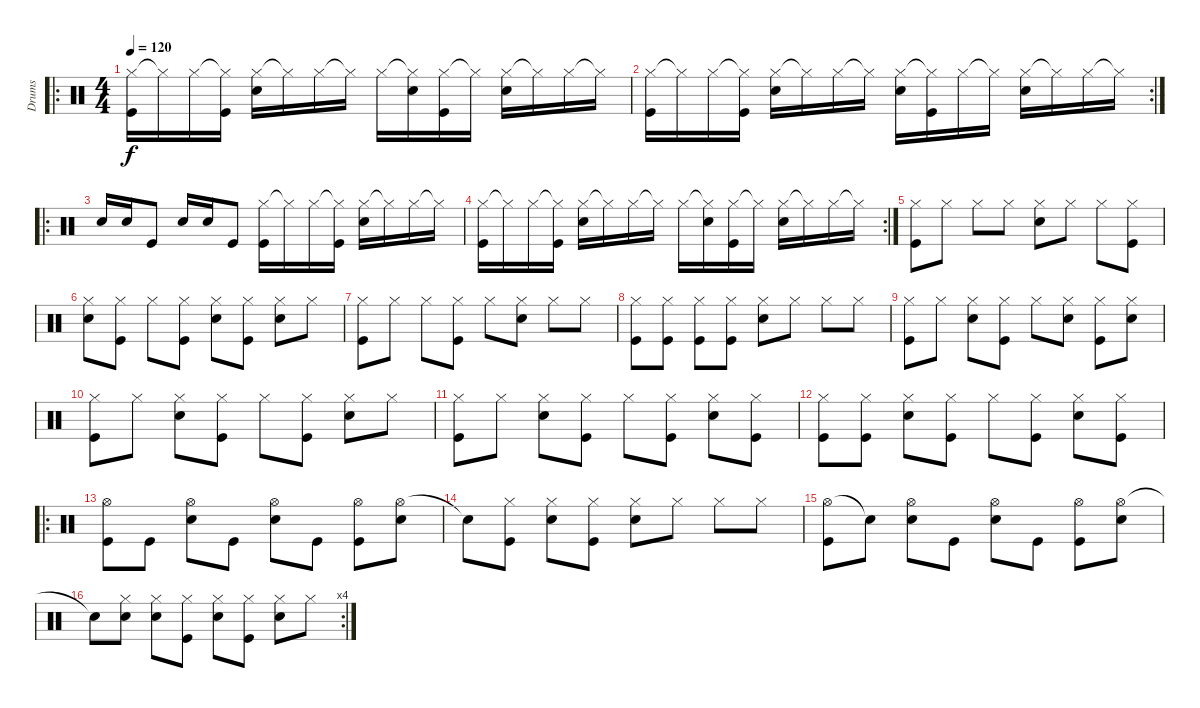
\track ("Drums" "Drums") {instrument percussion}
\staff {score}
\articulation defaults
\ro
\ts (4 4)
\tempo 120
\clef neutral
\ks c
("Hi-Hat (closed)" "Kick (hit)").16{dy f} "Hi-Hat (closed)"{t}.16 "Hi-Hat (closed)".16 ("Hi-Hat (closed)"{t} "Kick (hit)").16 ("Hi-Hat (closed)" "Snare (hit) 2").16 "Hi-Hat (closed)"{t}.16 "Hi-Hat (closed)".16 "Hi-Hat (closed)"{t}.16 "Hi-Hat (closed)".16 ("Hi-Hat (closed)"{t} "Snare (hit) 2").16 ("Hi-Hat (closed)" "Kick (hit)").16 "Hi-Hat (closed)"{t}.16 ("Hi-Hat (closed)" "Snare (hit) 2").16 "Hi-Hat (closed)"{t}.16 "Hi-Hat (closed)".16 "Hi-Hat (closed)"{t}.16 |
\rc 2
("Hi-Hat (closed)" "Kick (hit)").16 "Hi-Hat (closed)"{t}.16 "Hi-Hat (closed)".16 ("Hi-Hat (closed)"{t} "Kick (hit)").16 ("Hi-Hat (closed)" "Snare (hit) 2").16 "Hi-Hat (closed)"{t}.16 "Hi-Hat (closed)".16 "Hi-Hat (closed)"{t}.16 ("Hi-Hat (closed)" "Snare (hit) 2").16 ("Hi-Hat (closed)"{t} "Kick (hit)").16 "Hi-Hat (closed)".16 "Hi-Hat (closed)"{t}.16 ("Hi-Hat (closed)" "Snare (hit) 2").16 "Hi-Hat (closed)"{t}.16 "Hi-Hat (closed)".16 "Hi-Hat (closed)"{t}.16 |
\ro "Snare (hit) 2".16 "Snare (hit) 2".16 "Kick (hit)".8 "Snare (hit) 2".16 "Snare (hit) 2".16 "Kick (hit)".8
("Hi-Hat (closed)" "Kick (hit)").16 "Hi-Hat (closed)"{t}.16 "Hi-Hat (closed)".16 ("Hi-Hat (closed)"{t} "Kick (hit)").16 ("Hi-Hat (closed)" "Snare (hit) 2").16 "Hi-Hat (closed)"{t}.16 "Hi-Hat (closed)".16 "Hi-Hat (closed)"{t}.16 |
\rc 2
("Hi-Hat (closed)" "Kick (hit)").16 "Hi-Hat (closed)"{t}.16 "Hi-Hat (closed)".16 ("Hi-Hat (closed)"{t} "Kick (hit)").16 ("Hi-Hat (closed)" "Snare (hit) 2").16 "Hi-Hat (closed)"{t}.16 "Hi-Hat (closed)".16 "Hi-Hat (closed)"{t}.16 "Hi-Hat (closed)".16 ("Hi-Hat (closed)"{t} "Snare (hit) 2").16 ("Hi-Hat (closed)" "Kick (hit)").16 "Hi-Hat (closed)"{t}.16 ("Hi-Hat (closed)" "Snare (hit) 2").16 "Hi-Hat (closed)"{t}.16 "Hi-Hat (closed)".16 "Hi-Hat (closed)"{t}.16 |
("Hi-Hat (closed)" "Kick (hit)").8 "Hi-Hat (closed)".8 "Hi-Hat (closed)".8 "Hi-Hat (closed)".8 ("Hi-Hat (closed)" "Snare (hit) 2").8 "Hi-Hat (closed)".8 "Hi-Hat (closed)".8 ("Hi-Hat (closed)" "Kick (hit)").8 |
("Hi-Hat (closed)" "Snare (hit) 2").8 ("Hi-Hat (closed)" "Kick (hit)").8 "Hi-Hat (closed)".8 ("Hi-Hat (closed)" "Kick (hit)").8 ("Hi-Hat (closed)" "Snare (hit) 2").8 ("Hi-Hat (closed)" "Kick (hit)").8 ("Hi-Hat (closed)" "Snare (hit) 2").8 "Hi-Hat (closed)".8 |
("Hi-Hat (closed)" "Kick (hit)").8 "Hi-Hat (closed)".8 "Hi-Hat (closed)".8 ("Hi-Hat (closed)" "Kick (hit)").8 "Hi-Hat (closed)".8 ("Hi-Hat (closed)" "Snare (hit) 2").8 "Hi-Hat (closed)".8 "Hi-Hat (closed)".8 |
("Hi-Hat (closed)" "Kick (hit)").8 ("Hi-Hat (closed)" "Kick (hit)").8 ("Hi-Hat (closed)" "Kick (hit)").8 ("Hi-Hat (closed)" "Kick (hit)").8 ("Hi-Hat (closed)" "Snare (hit) 2").8 "Hi-Hat (closed)".8 "Hi-Hat (closed)".8 "Hi-Hat (closed)".8 |
("Hi-Hat (closed)" "Kick (hit)").8 "Hi-Hat (closed)".8 ("Hi-Hat (closed)" "Snare (hit) 2").8 ("Hi-Hat (closed)" "Kick (hit)").8 "Hi-Hat (closed)".8 ("Hi-Hat (closed)" "Snare (hit) 2").8 ("Hi-Hat (closed)" "Kick (hit)").8 ("Hi-Hat (closed)" "Snare (hit) 2").8 |
("Hi-Hat (closed)" "Kick (hit)").8 "Hi-Hat (closed)".8 ("Hi-Hat (closed)" "Snare (hit) 2").8 ("Hi-Hat (closed)" "Kick (hit)").8 "Hi-Hat (closed)".8 ("Hi-Hat (closed)" "Kick (hit)").8 ("Hi-Hat (closed)" "Snare (hit) 2").8 "Hi-Hat (closed)".8 |
("Hi-Hat (closed)" "Kick (hit)").8 "Hi-Hat (closed)".8 ("Hi-Hat (closed)" "Snare (hit) 2").8 ("Hi-Hat (closed)" "Kick (hit)").8 "Hi-Hat (closed)".8 ("Hi-Hat (closed)" "Kick (hit)").8 ("Hi-Hat (closed)" "Snare (hit) 2").8 ("Hi-Hat (closed)" "Kick (hit)").8 |
("Hi-Hat (closed)" "Kick (hit)").8 ("Hi-Hat (closed)" "Kick (hit)").8 ("Hi-Hat (closed)" "Snare (hit) 2").8 ("Hi-Hat (closed)" "Kick (hit)").8 "Hi-Hat (closed)".8 ("Hi-Hat (closed)" "Kick (hit)").8 ("Hi-Hat (closed)" "Snare (hit) 2").8 ("Hi-Hat (closed)" "Kick (hit)").8 |
\ro
("Hi-Hat (open)" "Kick (hit)").8 "Kick (hit)".8 ("Hi-Hat (open)" "Snare (hit) 2").8 "Kick (hit)".8 ("Hi-Hat (open)" "Snare (hit) 2").8 "Kick (hit)".8 ("Hi-Hat (open)" "Kick (hit)").8 ("Hi-Hat (open)" "Snare (hit) 2").8 |
"Snare (hit)"{t}.8 ("Hi-Hat (closed)" "Kick (hit)").8 ("Hi-Hat (closed)" "Snare (hit) 2").8 ("Hi-Hat (closed)" "Kick (hit)").8 ("Hi-Hat (closed)" "Snare (hit) 2").8 "Hi-Hat (closed)".8 "Hi-Hat (closed)".8 "Hi-Hat (closed)".8 |
("Hi-Hat (open)" "Kick (hit)").8 "Snare (hit)"{t}.8 ("Hi-Hat (open)" "Snare (hit) 2").8 "Kick (hit)".8 ("Hi-Hat (open)" "Snare (hit) 2").8 "Kick (hit)".8 ("Hi-Hat (open)" "Kick (hit)").8 ("Hi-Hat (open)" "Snare (hit) 2").8 |
\rc 4 "Snare (hit)"{t}.8
("Hi-Hat (closed)" "Snare (hit) 2").8 ("Hi-Hat (closed)" "Snare (hit) 2").8 ("Hi-Hat (closed)" "Kick (hit)").8 ("Hi-Hat (closed)" "Snare (hit) 2").8 ("Hi-Hat (closed)" "Kick (hit)").8 ("Hi-Hat (closed)" "Snare (hit) 2").8 "Hi-Hat (closed)".8
